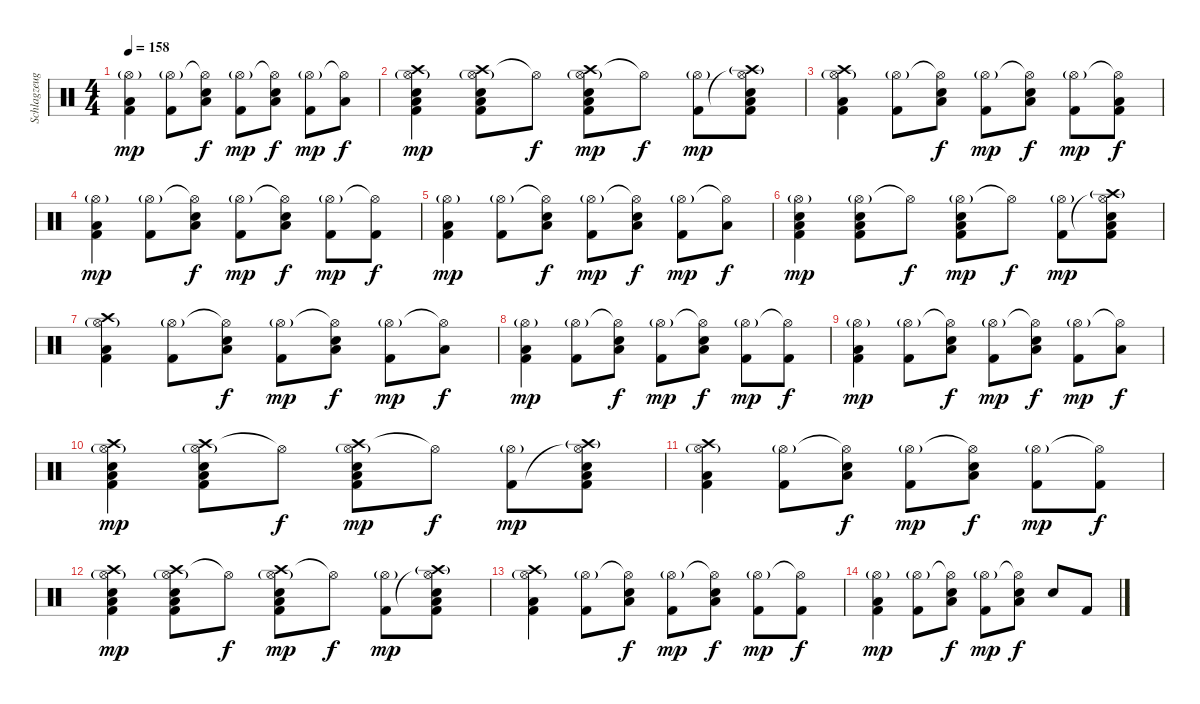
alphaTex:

\track ("Schlagzeug" "Schlagzeug") {instrument percussion}
\staff {score}
\articulation defaults
\ts (4 4)
\tempo 158
\clef neutral
\ks c
("Hi-Hat (open)"{g} "Low Floor Tom (hit)" "Kick (hit) 2").4{dy mp} ("Hi-Hat (open)"{g} "Kick (hit) 2").8 ("Hi-Hat (open)"{t} "Low Floor Tom (hit)" "Electric Snare (hit)").8{dy f} ("Hi-Hat (open)"{g} "Kick (hit) 2").8{dy mp} ("Hi-Hat (open)"{t} "Low Floor Tom (hit)" "Electric Snare (hit)").8{dy f} ("Hi-Hat (open)"{g} "Kick (hit) 2").8{dy mp} ("Hi-Hat (open)"{t} "Low Floor Tom (hit)").8{dy f} |
("Crash high (hit)" "Hi-Hat (open)"{g} "Low Floor Tom (hit)" "Electric Snare (hit)" "Kick (hit) 2").4{dy mp} ("Crash high (hit)" "Hi-Hat (open)"{g} "Low Floor Tom (hit)" "Electric Snare (hit)" "Kick (hit) 2").8 "Hi-Hat (open)"{t}.8{dy f} ("Crash high (hit)" "Hi-Hat (open)"{g} "Low Floor Tom (hit)" "Electric Snare (hit)" "Kick (hit) 2").8{dy mp} "Hi-Hat (open)"{t}.8{dy f} ("Hi-Hat (open)"{g} "Kick (hit) 2").8{dy mp} ("Crash high (hit)"{g} "Hi-Hat (open)"{t} "Low Floor Tom (hit)" "Electric Snare (hit)" "Kick (hit) 2").8 |
("Crash high (hit)" "Hi-Hat (open)"{g} "Low Floor Tom (hit)" "Kick (hit) 2").4 ("Hi-Hat (open)"{g} "Kick (hit) 2").8 ("Hi-Hat (open)"{t} "Low Floor Tom (hit)" "Electric Snare (hit)").8{dy f} ("Hi-Hat (open)"{g} "Kick (hit) 2").8{dy mp} ("Hi-Hat (open)"{t} "Low Floor Tom (hit)" "Electric Snare (hit)").8{dy f} ("Hi-Hat (open)"{g} "Kick (hit) 2").8{dy mp} ("Hi-Hat (open)"{t} "Low Floor Tom (hit)" "Kick (hit) 2").8{dy f} |
("Hi-Hat (open)"{g} "Low Floor Tom (hit)" "Kick (hit) 2").4{dy mp} ("Hi-Hat (open)"{g} "Kick (hit) 2").8 ("Hi-Hat (open)"{t} "Low Floor Tom (hit)" "Electric Snare (hit)").8{dy f} ("Hi-Hat (open)"{g} "Kick (hit) 2").8{dy mp} ("Hi-Hat (open)"{t} "Low Floor Tom (hit)" "Electric Snare (hit)").8{dy f} ("Hi-Hat (open)"{g} "Kick (hit) 2").8{dy mp} ("Hi-Hat (open)"{t} "Kick (hit) 2").8{dy f} |
("Hi-Hat (open)"{g} "Low Floor Tom (hit)" "Kick (hit) 2").4{dy mp} ("Hi-Hat (open)"{g} "Kick (hit) 2").8 ("Hi-Hat (open)"{t} "Low Floor Tom (hit)" "Electric Snare (hit)").8{dy f} ("Hi-Hat (open)"{g} "Kick (hit) 2").8{dy mp} ("Hi-Hat (open)"{t} "Low Floor Tom (hit)" "Electric Snare (hit)").8{dy f} ("Hi-Hat (open)"{g} "Kick (hit) 2").8{dy mp} ("Hi-Hat (open)"{t} "Low Floor Tom (hit)").8{dy f} |
("Hi-Hat (open)"{g} "Low Floor Tom (hit)" "Electric Snare (hit)" "Kick (hit) 2").4{dy mp} ("Hi-Hat (open)"{g} "Low Floor Tom (hit)" "Electric Snare (hit)" "Kick (hit) 2").8 "Hi-Hat (open)"{t}.8{dy f} ("Hi-Hat (open)"{g} "Low Floor Tom (hit)" "Electric Snare (hit)" "Kick (hit) 2").8{dy mp} "Hi-Hat (open)"{t}.8{dy f} ("Hi-Hat (open)"{g} "Kick (hit) 2").8{dy mp} ("Crash high (hit)"{g} "Hi-Hat (open)"{t} "Low Floor Tom (hit)" "Electric Snare (hit)" "Kick (hit) 2").8 |
("Crash high (hit)" "Hi-Hat (open)"{g} "Low Floor Tom (hit)" "Kick (hit) 2").4 ("Hi-Hat (open)"{g} "Kick (hit) 2").8 ("Hi-Hat (open)"{t} "Low Floor Tom (hit)" "Electric Snare (hit)").8{dy f} ("Hi-Hat (open)"{g} "Kick (hit) 2").8{dy mp} ("Hi-Hat (open)"{t} "Low Floor Tom (hit)" "Electric Snare (hit)").8{dy f} ("Hi-Hat (open)"{g} "Kick (hit) 2").8{dy mp} ("Hi-Hat (open)"{t} "Low Floor Tom (hit)").8{dy f} |
("Hi-Hat (open)"{g} "Low Floor Tom (hit)" "Kick (hit) 2").4{dy mp} ("Hi-Hat (open)"{g} "Kick (hit) 2").8 ("Hi-Hat (open)"{t} "Low Floor Tom (hit)" "Electric Snare (hit)").8{dy f} ("Hi-Hat (open)"{g} "Kick (hit) 2").8{dy mp} ("Hi-Hat (open)"{t} "Low Floor Tom (hit)" "Electric Snare (hit)").8{dy f} ("Hi-Hat (open)"{g} "Kick (hit) 2").8{dy mp} ("Hi-Hat (open)"{t} "Kick (hit) 2").8{dy f} |
("Hi-Hat (open)"{g} "Low Floor Tom (hit)" "Kick (hit) 2").4{dy mp} ("Hi-Hat (open)"{g} "Kick (hit) 2").8 ("Hi-Hat (open)"{t} "Low Floor Tom (hit)" "Electric Snare (hit)").8{dy f} ("Hi-Hat (open)"{g} "Kick (hit) 2").8{dy mp} ("Hi-Hat (open)"{t} "Low Floor Tom (hit)" "Electric Snare (hit)").8{dy f} ("Hi-Hat (open)"{g} "Kick (hit) 2").8{dy mp} ("Hi-Hat (open)"{t} "Low Floor Tom (hit)").8{dy f} |
("Crash high (hit)" "Hi-Hat (open)"{g} "Low Floor Tom (hit)" "Electric Snare (hit)" "Kick (hit) 2").4{dy mp} ("Crash high (hit)" "Hi-Hat (open)"{g} "Low Floor Tom (hit)" "Electric Snare (hit)" "Kick (hit) 2").8 "Hi-Hat (open)"{t}.8{dy f} ("Crash high (hit)" "Hi-Hat (open)"{g} "Low Floor Tom (hit)" "Electric Snare (hit)" "Kick (hit) 2").8{dy mp} "Hi-Hat (open)"{t}.8{dy f} ("Hi-Hat (open)"{g} "Kick (hit) 2").8{dy mp} ("Crash high (hit)"{g} "Hi-Hat (open)"{t} "Low Floor Tom (hit)" "Electric Snare (hit)" "Kick (hit) 2").8 |
("Crash high (hit)" "Hi-Hat (open)"{g} "Low Floor Tom (hit)" "Kick (hit) 2").4 ("Hi-Hat (open)"{g} "Kick (hit) 2").8 ("Hi-Hat (open)"{t} "Low Floor Tom (hit)" "Electric Snare (hit)").8{dy f} ("Hi-Hat (open)"{g} "Kick (hit) 2").8{dy mp} ("Hi-Hat (open)"{t} "Low Floor Tom (hit)" "Electric Snare (hit)").8{dy f} ("Hi-Hat (open)"{g} "Kick (hit) 2").8{dy mp} ("Hi-Hat (open)"{t} "Kick (hit) 2").8{dy f} |
("Crash high (hit)" "Hi-Hat (open)"{g} "Low Floor Tom (hit)" "Electric Snare (hit)" "Kick (hit) 2").4{dy mp} ("Crash high (hit)" "Hi-Hat (open)"{g} "Low Floor Tom (hit)" "Electric Snare (hit)" "Kick (hit) 2").8 "Hi-Hat (open)"{t}.8{dy f} ("Crash high (hit)" "Hi-Hat (open)"{g} "Low Floor Tom (hit)" "Electric Snare (hit)" "Kick (hit) 2").8{dy mp} "Hi-Hat (open)"{t}.8{dy f} ("Hi-Hat (open)"{g} "Kick (hit) 2").8{dy mp} ("Crash high (hit)"{g} "Hi-Hat (open)"{t} "Low Floor Tom (hit)" "Electric Snare (hit)" "Kick (hit) 2").8 |
("Crash high (hit)" "Hi-Hat (open)"{g} "Low Floor Tom (hit)" "Kick (hit) 2").4 ("Hi-Hat (open)"{g} "Kick (hit) 2").8 ("Hi-Hat (open)"{t} "Low Floor Tom (hit)" "Electric Snare (hit)").8{dy f} ("Hi-Hat (open)"{g} "Kick (hit) 2").8{dy mp} ("Hi-Hat (open)"{t} "Low Floor Tom (hit)" "Electric Snare (hit)").8{dy f} ("Hi-Hat (open)"{g} "Kick (hit) 2").8{dy mp} ("Hi-Hat (open)"{t} "Kick (hit) 2").8{dy f} |
("Hi-Hat (open)"{g} "Low Floor Tom (hit)" "Kick (hit) 2").4{dy mp} ("Hi-Hat (open)"{g} "Kick (hit) 2").8 ("Hi-Hat (open)"{t} "Low Floor Tom (hit)" "Electric Snare (hit)").8{dy f} ("Hi-Hat (open)"{g} "Kick (hit) 2").8{dy mp} ("Hi-Hat (open)"{t} "Low Floor Tom (hit)" "Electric Snare (hit)").8{dy f} "Electric Snare (hit)".8 "Kick (hit) 2".8
